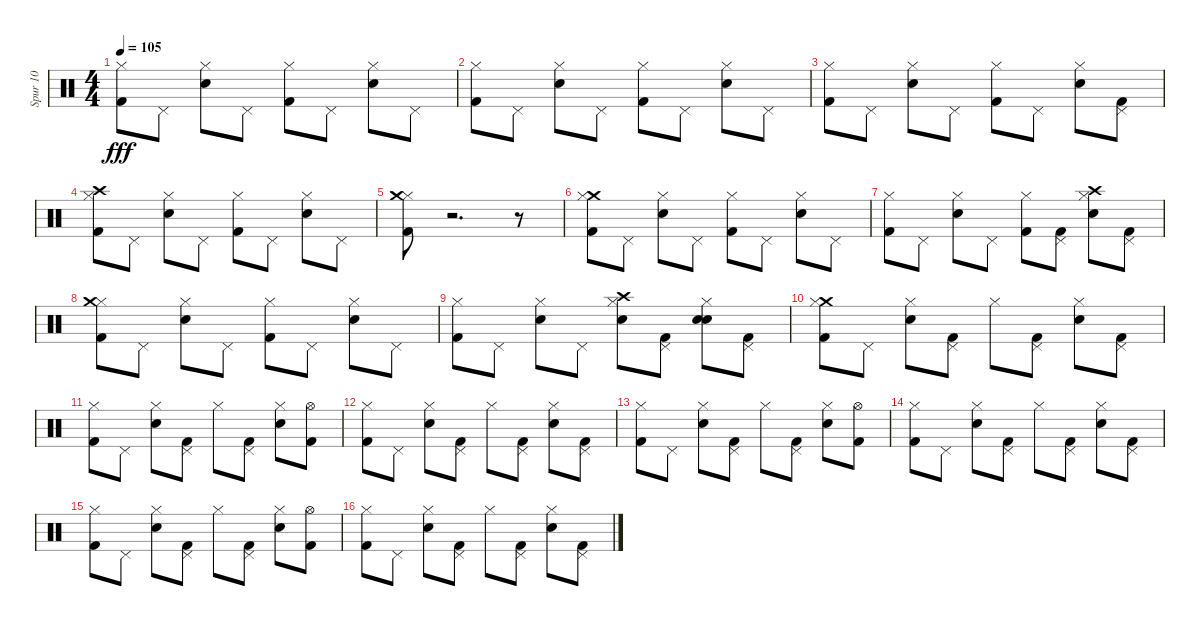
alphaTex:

\track ("Spur 10" "Spur 10") {instrument percussion}
\staff {score}
\articulation defaults
\ts (4 4)
\tempo 105
\clef neutral
\ks c
("Kick (hit) 2" "Hi-Hat (closed)").8{dy fff} "Pedal Hi-Hat (hit)".8 ("Electric Snare (hit)" "Hi-Hat (closed)").8 "Pedal Hi-Hat (hit)".8 ("Hi-Hat (closed)" "Kick (hit) 2").8 "Pedal Hi-Hat (hit)".8 ("Electric Snare (hit)" "Hi-Hat (closed)").8 "Pedal Hi-Hat (hit)".8 |
("Kick (hit) 2" "Hi-Hat (closed)").8 "Pedal Hi-Hat (hit)".8 ("Electric Snare (hit)" "Hi-Hat (closed)").8 "Pedal Hi-Hat (hit)".8 ("Kick (hit) 2" "Hi-Hat (closed)").8 "Pedal Hi-Hat (hit)".8 ("Electric Snare (hit)" "Hi-Hat (closed)").8 "Pedal Hi-Hat (hit)".8 |
("Kick (hit) 2" "Hi-Hat (closed)").8 "Pedal Hi-Hat (hit)".8 ("Electric Snare (hit)" "Hi-Hat (closed)").8 "Pedal Hi-Hat (hit)".8 ("Hi-Hat (closed)" "Kick (hit) 2").8 "Pedal Hi-Hat (hit)".8 ("Electric Snare (hit)" "Hi-Hat (closed)").8 ("Pedal Hi-Hat (hit)" "Kick (hit) 2").8 |
("Hi-Hat (closed)" "Crash high (hit)" "Kick (hit) 2").8 "Pedal Hi-Hat (hit)".8 ("Hi-Hat (closed)" "Electric Snare (hit)").8 "Pedal Hi-Hat (hit)".8 ("Hi-Hat (closed)" "Kick (hit) 2").8 "Pedal Hi-Hat (hit)".8 ("Electric Snare (hit)" "Hi-Hat (closed)").8 "Pedal Hi-Hat (hit)".8 |
("Kick (hit) 2" "Hi-Hat (closed)" "Crash medium (hit)").8 r.2{d} r.8 |
("Kick (hit) 2" "Crash medium (hit)" "Hi-Hat (closed)").8 "Pedal Hi-Hat (hit)".8 ("Electric Snare (hit)" "Hi-Hat (closed)").8 "Pedal Hi-Hat (hit)".8 ("Kick (hit) 2" "Hi-Hat (closed)").8 "Pedal Hi-Hat (hit)".8 ("Hi-Hat (closed)" "Electric Snare (hit)").8 "Pedal Hi-Hat (hit)".8 |
("Kick (hit) 2" "Hi-Hat (closed)").8 "Pedal Hi-Hat (hit)".8 ("Electric Snare (hit)" "Hi-Hat (closed)").8 "Pedal Hi-Hat (hit)".8 ("Kick (hit) 2" "Hi-Hat (closed)").8 ("Pedal Hi-Hat (hit)" "Kick (hit) 2").8 ("Hi-Hat (closed)" "Electric Snare (hit)" "Crash high (hit)").8 ("Kick (hit) 2" "Pedal Hi-Hat (hit)").8 |
("Hi-Hat (closed)" "Crash medium (hit)" "Kick (hit) 2").8 "Pedal Hi-Hat (hit)".8 ("Electric Snare (hit)" "Hi-Hat (closed)").8 "Pedal Hi-Hat (hit)".8 ("Hi-Hat (closed)" "Kick (hit) 2").8 "Pedal Hi-Hat (hit)".8 ("Hi-Hat (closed)" "Electric Snare (hit)").8 "Pedal Hi-Hat (hit)".8 |
("Kick (hit) 2" "Hi-Hat (closed)").8 "Pedal Hi-Hat (hit)".8 ("Hi-Hat (closed)" "Electric Snare (hit)").8 "Pedal Hi-Hat (hit)".8 ("Hi-Hat (closed)" "Electric Snare (hit)" "Crash high (hit)").8 ("Pedal Hi-Hat (hit)" "Kick (hit) 2").8 ("Electric Snare (hit)" "Hi-Hat (closed)" "Electric Snare (hit)").8 ("Kick (hit) 2" "Pedal Hi-Hat (hit)").8 |
("Crash medium (hit)" "Hi-Hat (closed)" "Kick (hit) 2").8 "Pedal Hi-Hat (hit)".8 ("Hi-Hat (closed)" "Electric Snare (hit)").8 ("Pedal Hi-Hat (hit)" "Kick (hit) 2").8 "Hi-Hat (closed)".8 ("Pedal Hi-Hat (hit)" "Kick (hit) 2").8 ("Electric Snare (hit)" "Hi-Hat (closed)").8 ("Pedal Hi-Hat (hit)" "Kick (hit) 2").8 |
("Kick (hit) 2" "Hi-Hat (closed)").8 "Pedal Hi-Hat (hit)".8 ("Electric Snare (hit)" "Hi-Hat (closed)").8 ("Kick (hit) 2" "Pedal Hi-Hat (hit)").8 "Hi-Hat (closed)".8 ("Pedal Hi-Hat (hit)" "Kick (hit) 2").8 ("Electric Snare (hit)" "Hi-Hat (closed)").8 ("Kick (hit) 2" "Hi-Hat (open)").8 |
("Hi-Hat (closed)" "Kick (hit) 2").8 "Pedal Hi-Hat (hit)".8 ("Hi-Hat (closed)" "Electric Snare (hit)").8 ("Pedal Hi-Hat (hit)" "Kick (hit) 2").8 "Hi-Hat (closed)".8 ("Pedal Hi-Hat (hit)" "Kick (hit) 2").8 ("Hi-Hat (closed)" "Electric Snare (hit)").8 ("Kick (hit) 2" "Pedal Hi-Hat (hit)").8 |
("Hi-Hat (closed)" "Kick (hit) 2").8 "Pedal Hi-Hat (hit)".8 ("Electric Snare (hit)" "Hi-Hat (closed)").8 ("Kick (hit) 2" "Pedal Hi-Hat (hit)").8 "Hi-Hat (closed)".8 ("Kick (hit) 2" "Pedal Hi-Hat (hit)").8 ("Hi-Hat (closed)" "Electric Snare (hit)").8 ("Hi-Hat (open)" "Kick (hit) 2").8 |
("Kick (hit) 2" "Hi-Hat (closed)").8 "Pedal Hi-Hat (hit)".8 ("Electric Snare (hit)" "Hi-Hat (closed)").8 ("Pedal Hi-Hat (hit)" "Kick (hit) 2").8 "Hi-Hat (closed)".8 ("Pedal Hi-Hat (hit)" "Kick (hit) 2").8 ("Electric Snare (hit)" "Hi-Hat (closed)").8 ("Kick (hit) 2" "Pedal Hi-Hat (hit)").8 |
("Kick (hit) 2" "Hi-Hat (closed)").8 "Pedal Hi-Hat (hit)".8 ("Electric Snare (hit)" "Hi-Hat (closed)").8 ("Pedal Hi-Hat (hit)" "Kick (hit) 2").8 "Hi-Hat (closed)".8 ("Pedal Hi-Hat (hit)" "Kick (hit) 2").8 ("Hi-Hat (closed)" "Electric Snare (hit)").8 ("Hi-Hat (open)" "Kick (hit) 2").8 |
("Hi-Hat (closed)" "Kick (hit) 2").8 "Pedal Hi-Hat (hit)".8 ("Electric Snare (hit)" "Hi-Hat (closed)").8 ("Pedal Hi-Hat (hit)" "Kick (hit) 2").8 "Hi-Hat (closed)".8 ("Pedal Hi-Hat (hit)" "Kick (hit) 2").8 ("Hi-Hat (closed)" "Electric Snare (hit)").8 ("Pedal Hi-Hat (hit)" "Kick (hit) 2").8
